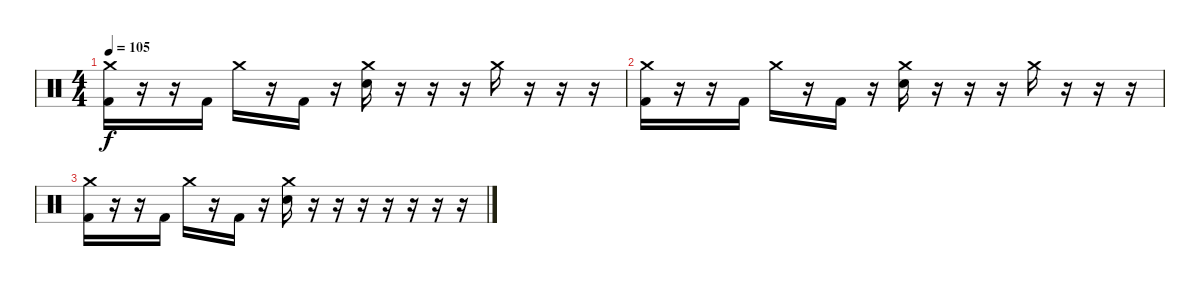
\track "" {instrument percussion}
\staff {score}
\articulation defaults
\ts (4 4)
\tempo 105
\clef neutral
\ks c
("Crash medium (hit)" "Kick (hit) 2").16{dy f} r.16 r.16 "Kick (hit) 2".16 "Crash medium (hit)".16 r.16 "Kick (hit) 2".16 r.16 ("Crash medium (hit)" "Snare (hit) 2").16 r.16 r.16 r.16 "Crash medium (hit)".16 r.16 r.16 r.16 |
("Crash medium (hit)" "Kick (hit) 2").16 r.16 r.16 "Kick (hit) 2".16 "Crash medium (hit)".16 r.16 "Kick (hit) 2".16 r.16 ("Crash medium (hit)" "Snare (hit) 2").16 r.16 r.16 r.16 "Crash medium (hit)".16 r.16 r.16 r.16 |
("Crash medium (hit)" "Kick (hit) 2").16 r.16 r.16 "Kick (hit) 2".16 "Crash medium (hit)".16 r.16 "Kick (hit) 2".16 r.16 ("Crash medium (hit)" "Snare (hit) 2").16 r.16 r.16 r.16 r.16 r.16 r.16 r.16
